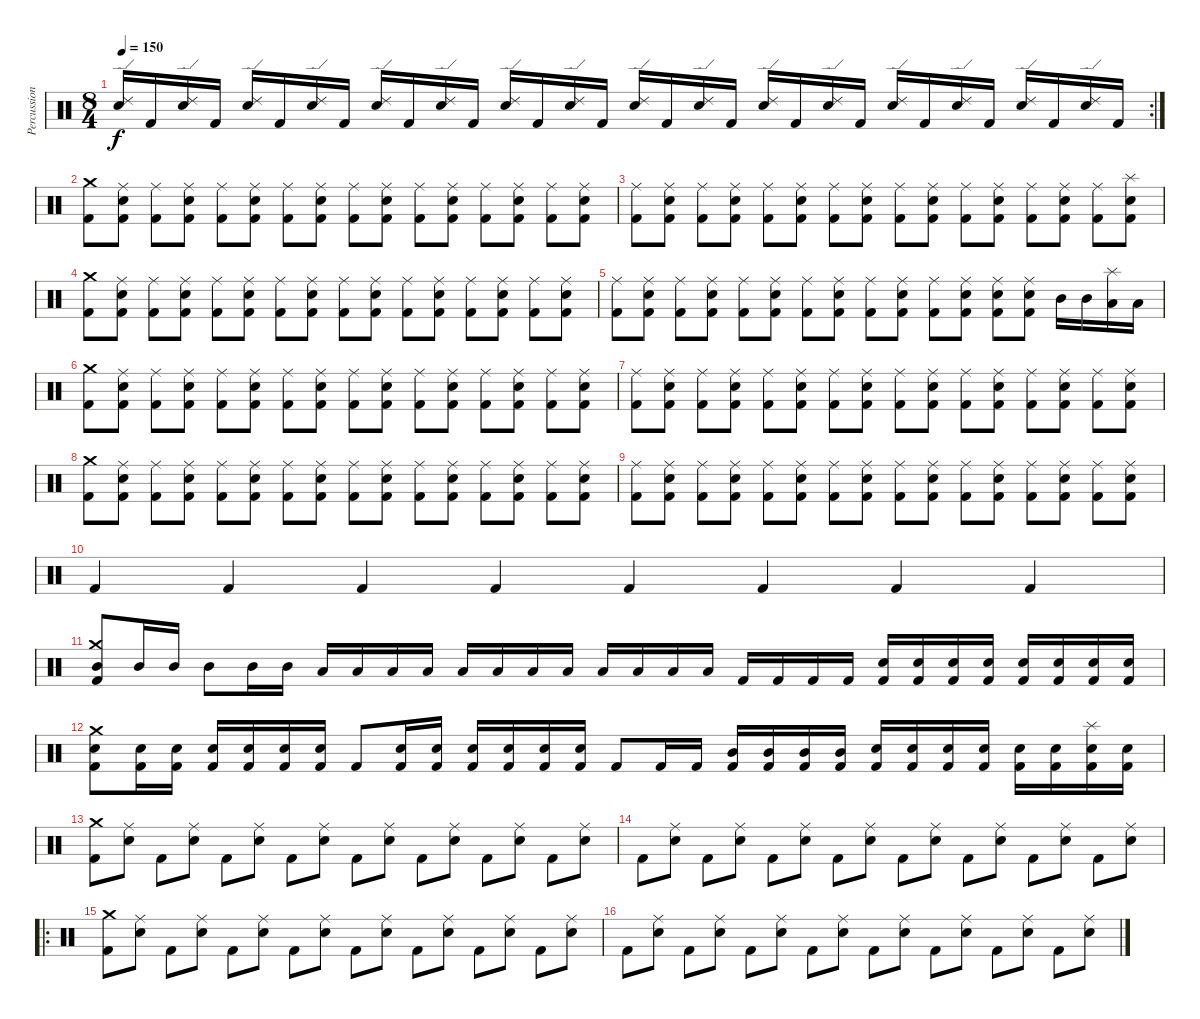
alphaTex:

\track ("Percussions" "Percussion") {instrument percussion}
\staff {score}
\articulation defaults
\rc 2
\ts (8 4)
\tempo 150
\clef neutral
\ks c
("Ride (edge) 2" "Snare (hit) 2").16{dy f} "Kick (hit) 2".16 ("Ride (edge) 2" "Snare (hit) 2").16 "Kick (hit) 2".16 ("Ride (edge) 2" "Snare (hit) 2").16 "Kick (hit) 2".16 ("Ride (edge) 2" "Snare (hit) 2").16 "Kick (hit) 2".16 ("Ride (edge) 2" "Snare (hit) 2").16 "Kick (hit) 2".16 ("Ride (edge) 2" "Snare (hit) 2").16 "Kick (hit) 2".16 ("Ride (edge) 2" "Snare (hit) 2").16 "Kick (hit) 2".16 ("Ride (edge) 2" "Snare (hit) 2").16 "Kick (hit) 2".16 ("Ride (edge) 2" "Snare (hit) 2").16 "Kick (hit) 2".16 ("Ride (edge) 2" "Snare (hit) 2").16 "Kick (hit) 2".16 ("Ride (edge) 2" "Snare (hit) 2").16 "Kick (hit) 2".16 ("Ride (edge) 2" "Snare (hit) 2").16 "Kick (hit) 2".16 ("Ride (edge) 2" "Snare (hit) 2").16 "Kick (hit) 2".16 ("Ride (edge) 2" "Snare (hit) 2").16 "Kick (hit) 2".16 ("Ride (edge) 2" "Snare (hit) 2").16 "Kick (hit) 2".16 ("Ride (edge) 2" "Snare (hit) 2").16 "Kick (hit) 2".16 |
("Crash medium (hit)" "Kick (hit) 2").8 ("Ride (middle)" "Snare (hit) 2" "Kick (hit) 2").8 ("Ride (middle)" "Kick (hit) 2").8 ("Ride (middle)" "Snare (hit) 2" "Kick (hit) 2").8 ("Ride (middle)" "Kick (hit) 2").8 ("Ride (middle)" "Snare (hit) 2" "Kick (hit) 2").8 ("Ride (middle)" "Kick (hit) 2").8 ("Ride (middle)" "Snare (hit) 2" "Kick (hit) 2").8 ("Ride (middle)" "Kick (hit) 2").8 ("Ride (middle)" "Snare (hit) 2" "Kick (hit) 2").8 ("Ride (middle)" "Kick (hit) 2").8 ("Ride (middle)" "Snare (hit) 2" "Kick (hit) 2").8 ("Ride (middle)" "Kick (hit) 2").8 ("Ride (middle)" "Snare (hit) 2" "Kick (hit) 2").8 ("Ride (middle)" "Kick (hit) 2").8 ("Ride (middle)" "Snare (hit) 2" "Kick (hit) 2").8 |
("Ride (middle)" "Kick (hit) 2").8 ("Ride (middle)" "Snare (hit) 2" "Kick (hit) 2").8 ("Ride (middle)" "Kick (hit) 2").8 ("Ride (middle)" "Snare (hit) 2" "Kick (hit) 2").8 ("Ride (middle)" "Kick (hit) 2").8 ("Ride (middle)" "Snare (hit) 2" "Kick (hit) 2").8 ("Ride (middle)" "Kick (hit) 2").8 ("Ride (middle)" "Snare (hit) 2" "Kick (hit) 2").8 ("Ride (middle)" "Kick (hit) 2").8 ("Ride (middle)" "Snare (hit) 2" "Kick (hit) 2").8 ("Ride (middle)" "Kick (hit) 2").8 ("Ride (middle)" "Snare (hit) 2" "Kick (hit) 2").8 ("Ride (middle)" "Kick (hit) 2").8 ("Ride (middle)" "Snare (hit) 2" "Kick (hit) 2").8 ("Ride (middle)" "Kick (hit) 2").8 ("Splash (hit)" "Snare (hit) 2" "Kick (hit) 2").8 |
("Crash medium (hit)" "Kick (hit) 2").8 ("Ride (middle)" "Snare (hit) 2" "Kick (hit) 2").8 ("Ride (middle)" "Kick (hit) 2").8 ("Ride (middle)" "Snare (hit) 2" "Kick (hit) 2").8 ("Ride (middle)" "Kick (hit) 2").8 ("Ride (middle)" "Snare (hit) 2" "Kick (hit) 2").8 ("Ride (middle)" "Kick (hit) 2").8 ("Ride (middle)" "Snare (hit) 2" "Kick (hit) 2").8 ("Ride (middle)" "Kick (hit) 2").8 ("Ride (middle)" "Snare (hit) 2" "Kick (hit) 2").8 ("Ride (middle)" "Kick (hit) 2").8 ("Ride (middle)" "Snare (hit) 2" "Kick (hit) 2").8 ("Ride (middle)" "Kick (hit) 2").8 ("Ride (middle)" "Snare (hit) 2" "Kick (hit) 2").8 ("Ride (middle)" "Kick (hit) 2").8 ("Ride (middle)" "Snare (hit) 2" "Kick (hit) 2").8 |
("Ride (middle)" "Kick (hit) 2").8 ("Ride (middle)" "Snare (hit) 2" "Kick (hit) 2").8 ("Ride (middle)" "Kick (hit) 2").8 ("Ride (middle)" "Snare (hit) 2" "Kick (hit) 2").8 ("Ride (middle)" "Kick (hit) 2").8 ("Ride (middle)" "Snare (hit) 2" "Kick (hit) 2").8 ("Ride (middle)" "Kick (hit) 2").8 ("Ride (middle)" "Snare (hit) 2" "Kick (hit) 2").8 ("Ride (middle)" "Kick (hit) 2").8 ("Ride (middle)" "Snare (hit) 2" "Kick (hit) 2").8 ("Ride (middle)" "Kick (hit) 2").8 ("Ride (middle)" "Snare (hit) 2" "Kick (hit) 2").8 ("Ride (middle)" "Snare (hit) 2" "Kick (hit) 2").8 ("Ride (middle)" "Snare (hit) 2" "Kick (hit) 2").8 "Mid Tom (hit)".16 "Mid Tom (hit)".16 ("Splash (hit)" "Low Tom (hit)").16 "Low Tom (hit)".16 |
("Crash medium (hit)" "Kick (hit) 2").8 ("Ride (middle)" "Snare (hit) 2" "Kick (hit) 2").8 ("Ride (middle)" "Kick (hit) 2").8 ("Ride (middle)" "Snare (hit) 2" "Kick (hit) 2").8 ("Ride (middle)" "Kick (hit) 2").8 ("Ride (middle)" "Snare (hit) 2" "Kick (hit) 2").8 ("Ride (middle)" "Kick (hit) 2").8 ("Ride (middle)" "Snare (hit) 2" "Kick (hit) 2").8 ("Ride (middle)" "Kick (hit) 2").8 ("Ride (middle)" "Snare (hit) 2" "Kick (hit) 2").8 ("Ride (middle)" "Kick (hit) 2").8 ("Ride (middle)" "Snare (hit) 2" "Kick (hit) 2").8 ("Ride (middle)" "Kick (hit) 2").8 ("Ride (middle)" "Snare (hit) 2" "Kick (hit) 2").8 ("Ride (middle)" "Kick (hit) 2").8 ("Ride (middle)" "Snare (hit) 2" "Kick (hit) 2").8 |
("Ride (middle)" "Kick (hit) 2").8 ("Ride (middle)" "Snare (hit) 2" "Kick (hit) 2").8 ("Ride (middle)" "Kick (hit) 2").8 ("Ride (middle)" "Snare (hit) 2" "Kick (hit) 2").8 ("Ride (middle)" "Kick (hit) 2").8 ("Ride (middle)" "Snare (hit) 2" "Kick (hit) 2").8 ("Ride (middle)" "Kick (hit) 2").8 ("Ride (middle)" "Snare (hit) 2" "Kick (hit) 2").8 ("Ride (middle)" "Kick (hit) 2").8 ("Ride (middle)" "Snare (hit) 2" "Kick (hit) 2").8 ("Ride (middle)" "Kick (hit) 2").8 ("Ride (middle)" "Snare (hit) 2" "Kick (hit) 2").8 ("Ride (middle)" "Kick (hit) 2").8 ("Ride (middle)" "Snare (hit) 2" "Kick (hit) 2").8 ("Ride (middle)" "Kick (hit) 2").8 ("Ride (middle)" "Snare (hit) 2" "Kick (hit) 2").8 |
("Crash medium (hit)" "Kick (hit) 2").8 ("Ride (middle)" "Snare (hit) 2" "Kick (hit) 2").8 ("Ride (middle)" "Kick (hit) 2").8 ("Ride (middle)" "Snare (hit) 2" "Kick (hit) 2").8 ("Ride (middle)" "Kick (hit) 2").8 ("Ride (middle)" "Snare (hit) 2" "Kick (hit) 2").8 ("Ride (middle)" "Kick (hit) 2").8 ("Ride (middle)" "Snare (hit) 2" "Kick (hit) 2").8 ("Ride (middle)" "Kick (hit) 2").8 ("Ride (middle)" "Snare (hit) 2" "Kick (hit) 2").8 ("Ride (middle)" "Kick (hit) 2").8 ("Ride (middle)" "Snare (hit) 2" "Kick (hit) 2").8 ("Ride (middle)" "Kick (hit) 2").8 ("Ride (middle)" "Snare (hit) 2" "Kick (hit) 2").8 ("Ride (middle)" "Kick (hit) 2").8 ("Ride (middle)" "Snare (hit) 2" "Kick (hit) 2").8 |
("Ride (middle)" "Kick (hit) 2").8 ("Ride (middle)" "Snare (hit) 2" "Kick (hit) 2").8 ("Ride (middle)" "Kick (hit) 2").8 ("Ride (middle)" "Snare (hit) 2" "Kick (hit) 2").8 ("Ride (middle)" "Kick (hit) 2").8 ("Ride (middle)" "Snare (hit) 2" "Kick (hit) 2").8 ("Ride (middle)" "Kick (hit) 2").8 ("Ride (middle)" "Snare (hit) 2" "Kick (hit) 2").8 ("Ride (middle)" "Kick (hit) 2").8 ("Ride (middle)" "Snare (hit) 2" "Kick (hit) 2").8 ("Ride (middle)" "Kick (hit) 2").8 ("Ride (middle)" "Snare (hit) 2" "Kick (hit) 2").8 ("Ride (middle)" "Kick (hit) 2").8 ("Ride (middle)" "Snare (hit) 2" "Kick (hit) 2").8 ("Ride (middle)" "Kick (hit) 2").8 ("Ride (middle)" "Snare (hit) 2" "Kick (hit) 2").8 |
"Kick (hit) 2".4 "Kick (hit) 2".4 "Kick (hit) 2".4 "Kick (hit) 2".4 "Kick (hit) 2".4 "Kick (hit) 2".4 "Kick (hit) 2".4 "Kick (hit) 2".4 |
("Crash medium (hit)" "Mid Tom (hit)" "Kick (hit) 2").8 "Mid Tom (hit)".16 "Mid Tom (hit)".16 "Mid Tom (hit)".8 "Mid Tom (hit)".16 "Mid Tom (hit)".16 "Low Tom (hit)".16 "Low Tom (hit)".16 "Low Tom (hit)".16 "Low Tom (hit)".16 "Low Floor Tom (hit)".16 "Low Floor Tom (hit)".16 "Low Floor Tom (hit)".16 "Low Floor Tom (hit)".16 "Low Floor Tom (hit)".16 "Low Floor Tom (hit)".16 "Low Floor Tom (hit)".16 "Low Floor Tom (hit)".16 "Kick (hit) 2".16 "Kick (hit) 2".16 "Kick (hit) 2".16 "Kick (hit) 2".16 ("Snare (hit) 2" "Kick (hit) 2").16 ("Snare (hit) 2" "Kick (hit) 2").16 ("Snare (hit) 2" "Kick (hit) 2").16 ("Snare (hit) 2" "Kick (hit) 2").16 ("Snare (hit) 2" "Kick (hit) 2").16 ("Snare (hit) 2" "Kick (hit) 2").16 ("Snare (hit) 2" "Kick (hit) 2").16 ("Snare (hit) 2" "Kick (hit) 2").16 |
("Crash medium (hit)" "Snare (hit) 2" "Kick (hit) 2").8 ("Snare (hit) 2" "Kick (hit) 2").16 ("Snare (hit) 2" "Kick (hit) 2").16 ("Snare (hit) 2" "Kick (hit) 2").16 ("Snare (hit) 2" "Kick (hit) 2").16 ("Snare (hit) 2" "Kick (hit) 2").16 ("Snare (hit) 2" "Kick (hit) 2").16 "Kick (hit) 2".8 ("Snare (hit) 2" "Kick (hit) 2").16 ("Snare (hit) 2" "Kick (hit) 2").16 ("Snare (hit) 2" "Kick (hit) 2").16 ("Snare (hit) 2" "Kick (hit) 2").16 ("Snare (hit) 2" "Kick (hit) 2").16 ("Snare (hit) 2" "Kick (hit) 2").16 "Kick (hit) 2".8 "Kick (hit) 2".16 "Kick (hit) 2".16 ("Mid Tom (hit)" "Kick (hit) 2").16 ("Mid Tom (hit)" "Kick (hit) 2").16 ("Mid Tom (hit)" "Kick (hit) 2").16 ("Mid Tom (hit)" "Kick (hit) 2").16 ("Snare (hit) 2" "Kick (hit) 2").16 ("Snare (hit) 2" "Kick (hit) 2").16 ("Snare (hit) 2" "Kick (hit) 2").16 ("Snare (hit) 2" "Kick (hit) 2").16 ("Snare (hit) 2" "Kick (hit) 2").16 ("Snare (hit) 2" "Kick (hit) 2").16 ("Splash (hit)" "Snare (hit) 2" "Kick (hit) 2").16 ("Snare (hit) 2" "Kick (hit) 2").16 |
("Crash medium (hit)" "Kick (hit) 2").8 ("Ride (middle)" "Snare (hit) 2").8 "Kick (hit) 2".8 ("Ride (middle)" "Snare (hit) 2").8 "Kick (hit) 2".8 ("Ride (middle)" "Snare (hit) 2").8 "Kick (hit) 2".8 ("Ride (middle)" "Snare (hit) 2").8 "Kick (hit) 2".8 ("Ride (middle)" "Snare (hit) 2").8 "Kick (hit) 2".8 ("Ride (middle)" "Snare (hit) 2").8 "Kick (hit) 2".8 ("Ride (middle)" "Snare (hit) 2").8 "Kick (hit) 2".8 ("Ride (middle)" "Snare (hit) 2").8 |
"Kick (hit) 2".8 ("Ride (middle)" "Snare (hit) 2").8 "Kick (hit) 2".8 ("Ride (middle)" "Snare (hit) 2").8 "Kick (hit) 2".8 ("Ride (middle)" "Snare (hit) 2").8 "Kick (hit) 2".8 ("Ride (middle)" "Snare (hit) 2").8 "Kick (hit) 2".8 ("Ride (middle)" "Snare (hit) 2").8 "Kick (hit) 2".8 ("Ride (middle)" "Snare (hit) 2").8 "Kick (hit) 2".8 ("Ride (middle)" "Snare (hit) 2").8 "Kick (hit) 2".8 ("Ride (middle)" "Snare (hit) 2").8 |
\ro
("Crash medium (hit)" "Kick (hit) 2").8 ("Ride (middle)" "Snare (hit) 2").8 "Kick (hit) 2".8 ("Ride (middle)" "Snare (hit) 2").8 "Kick (hit) 2".8 ("Ride (middle)" "Snare (hit) 2").8 "Kick (hit) 2".8 ("Ride (middle)" "Snare (hit) 2").8 "Kick (hit) 2".8 ("Ride (middle)" "Snare (hit) 2").8 "Kick (hit) 2".8 ("Ride (middle)" "Snare (hit) 2").8 "Kick (hit) 2".8 ("Ride (middle)" "Snare (hit) 2").8 "Kick (hit) 2".8 ("Ride (middle)" "Snare (hit) 2").8 |
"Kick (hit) 2".8 ("Ride (middle)" "Snare (hit) 2").8 "Kick (hit) 2".8 ("Ride (middle)" "Snare (hit) 2").8 "Kick (hit) 2".8 ("Ride (middle)" "Snare (hit) 2").8 "Kick (hit) 2".8 ("Ride (middle)" "Snare (hit) 2").8 "Kick (hit) 2".8 ("Ride (middle)" "Snare (hit) 2").8 "Kick (hit) 2".8 ("Ride (middle)" "Snare (hit) 2").8 "Kick (hit) 2".8 ("Ride (middle)" "Snare (hit) 2").8 "Kick (hit) 2".8 ("Ride (middle)" "Snare (hit) 2").8
